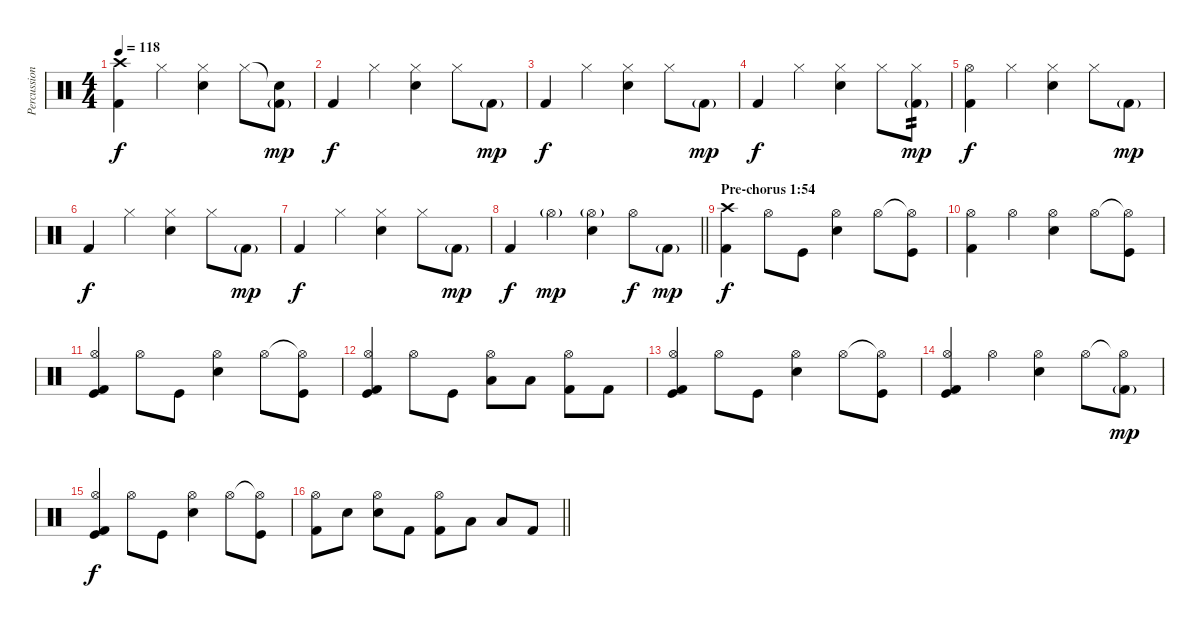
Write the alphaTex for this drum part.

\track ("Percussion" "Percussion") {instrument percussion}
\staff {score}
\articulation defaults
\ts (4 4)
\tempo 118
\clef neutral
\ks c
("Crash high (hit)" "Kick (hit) 2").4{dy f} "Hi-Hat (closed)".4 ("Hi-Hat (closed)" "Electric Snare (hit)").4 "Hi-Hat (closed)".8 ("Snare (hit)"{t} "Kick (hit) 2"{g}).8{dy mp} |
"Kick (hit) 2".4{dy f} "Hi-Hat (closed)".4 ("Hi-Hat (closed)" "Electric Snare (hit)").4 "Hi-Hat (closed)".8 "Kick (hit) 2"{g}.8{dy mp} |
"Kick (hit) 2".4{dy f} "Hi-Hat (closed)".4 ("Hi-Hat (closed)" "Electric Snare (hit)").4 "Hi-Hat (closed)".8 "Kick (hit) 2"{g}.8{dy mp} |
"Kick (hit) 2".4{dy f} "Hi-Hat (closed)".4 ("Hi-Hat (closed)" "Electric Snare (hit)").4 "Hi-Hat (closed)".8 ("Hi-Hat (closed)" "Kick (hit) 2"{g}).8{tp 2 dy mp} |
("Hi-Hat (open)" "Kick (hit) 2").4{dy f} "Hi-Hat (closed)".4 ("Hi-Hat (closed)" "Electric Snare (hit)").4 "Hi-Hat (closed)".8 "Kick (hit) 2"{g}.8{dy mp} |
"Kick (hit) 2".4{dy f} "Hi-Hat (closed)".4 ("Hi-Hat (closed)" "Electric Snare (hit)").4 "Hi-Hat (closed)".8 "Kick (hit) 2"{g}.8{dy mp} |
"Kick (hit) 2".4{dy f} "Hi-Hat (closed)".4 ("Hi-Hat (closed)" "Electric Snare (hit)").4 "Hi-Hat (closed)".8 "Kick (hit) 2"{g}.8{dy mp} |
\barLineRight lightlight "Kick (hit) 2".4{dy f} "Hi-Hat (open)"{g}.4{dy mp}
("Hi-Hat (open)"{g} "Electric Snare (hit)").4 "Hi-Hat (open)".8{dy f} "Kick (hit) 2"{g}.8{dy mp} |
\section ("" "Pre-chorus 1:54")
("Crash high (hit)" "Kick (hit) 2").4{dy f} "Hi-Hat (open)".8 "Kick (hit)".8 ("Hi-Hat (open)" "Electric Snare (hit)").4 "Hi-Hat (open)".8 ("Hi-Hat (open)"{t} "Kick (hit)").8 |
("Hi-Hat (open)" "Kick (hit) 2").4 "Hi-Hat (open)".4 ("Hi-Hat (open)" "Electric Snare (hit)").4 "Hi-Hat (open)".8 ("Hi-Hat (open)"{t} "Kick (hit)").8 |
("Hi-Hat (open)" "Kick (hit)" "Kick (hit) 2").4 "Hi-Hat (open)".8 "Kick (hit)".8 ("Hi-Hat (open)" "Electric Snare (hit)").4 "Hi-Hat (open)".8 ("Hi-Hat (open)"{t} "Kick (hit)").8 |
("Hi-Hat (open)" "Kick (hit)" "Kick (hit) 2").4 "Hi-Hat (open)".8 "Kick (hit)".8 ("Hi-Hat (open)" "Low Floor Tom (hit)").8 "Low Floor Tom (hit)".8 ("Hi-Hat (open)" "Kick (hit) 2").8 "Kick (hit) 2".8 |
("Hi-Hat (open)" "Kick (hit)" "Kick (hit) 2").4 "Hi-Hat (open)".8 "Kick (hit)".8 ("Hi-Hat (open)" "Electric Snare (hit)").4 "Hi-Hat (open)".8 ("Hi-Hat (open)"{t} "Kick (hit)").8 |
("Hi-Hat (open)" "Kick (hit)" "Kick (hit) 2").4 "Hi-Hat (open)".4 ("Hi-Hat (open)" "Electric Snare (hit)").4 "Hi-Hat (open)".8 ("Hi-Hat (open)"{t} "Kick (hit) 2"{g}).8{dy mp} |
("Hi-Hat (open)" "Kick (hit)" "Kick (hit) 2").4{dy f} "Hi-Hat (open)".8 "Kick (hit)".8 ("Hi-Hat (open)" "Electric Snare (hit)").4 "Hi-Hat (open)".8 ("Hi-Hat (open)"{t} "Kick (hit)").8 |
\barLineRight lightlight
("Hi-Hat (open)" "Kick (hit) 2").8 "Electric Snare (hit)".8 ("Hi-Hat (open)" "Electric Snare (hit)").8 "Kick (hit) 2".8 ("Hi-Hat (open)" "Kick (hit) 2").8 "Low Floor Tom (hit)".8 "Low Floor Tom (hit)".8 "Kick (hit) 2".8
